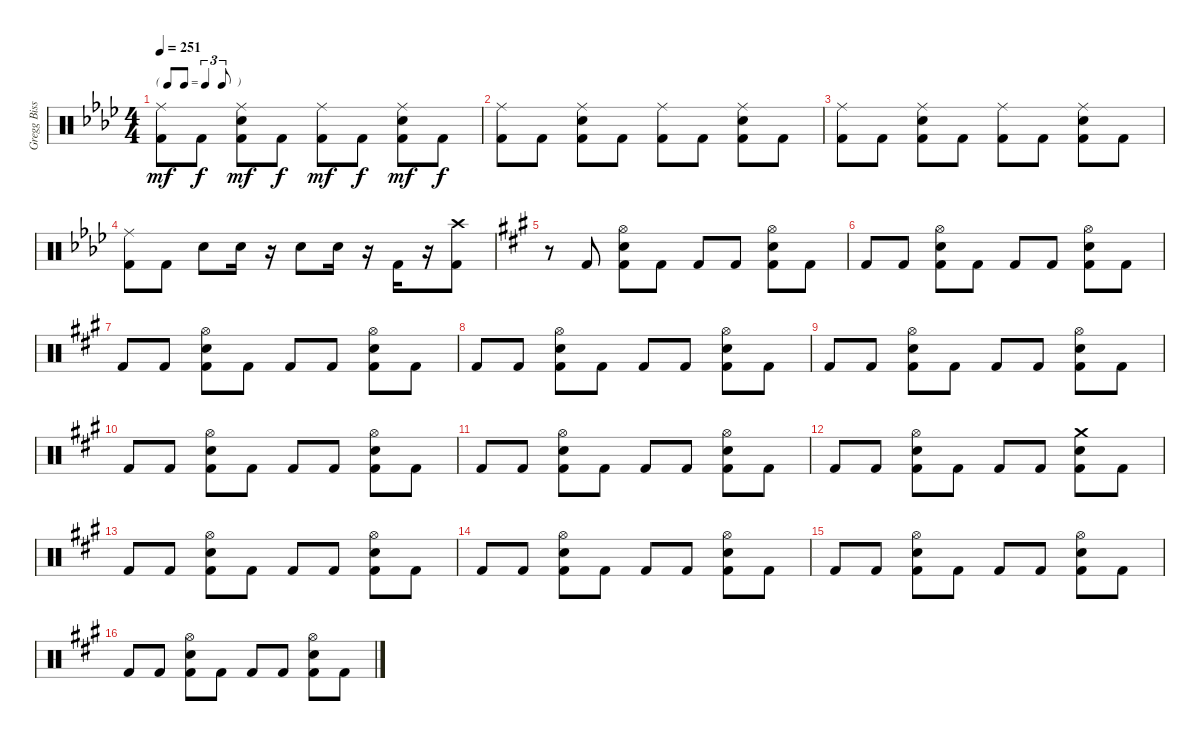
\track ("Gregg Bissonette" "Gregg Biss") {instrument percussion}
\staff {score}
\articulation defaults
\ts (4 4)
\tf triplet8th
\tempo 251
\clef neutral
\ks fminor
("Ride (middle)" "Kick (hit) 2").8{dy mf} "Kick (hit) 2".8{dy f} ("Ride (middle)" "Electric Snare (hit)" "Kick (hit) 2").8{dy mf} "Kick (hit) 2".8{dy f} ("Ride (middle)" "Kick (hit) 2").8{dy mf} "Kick (hit) 2".8{dy f} ("Ride (middle)" "Electric Snare (hit)" "Kick (hit) 2").8{dy mf} "Kick (hit) 2".8{dy f} |
("Ride (middle)" "Kick (hit) 2").8 "Kick (hit) 2".8 ("Ride (middle)" "Electric Snare (hit)" "Kick (hit) 2").8 "Kick (hit) 2".8 ("Ride (middle)" "Kick (hit) 2").8 "Kick (hit) 2".8 ("Ride (middle)" "Electric Snare (hit)" "Kick (hit) 2").8 "Kick (hit) 2".8 |
("Ride (middle)" "Kick (hit) 2").8 "Kick (hit) 2".8 ("Ride (middle)" "Electric Snare (hit)" "Kick (hit) 2").8 "Kick (hit) 2".8 ("Ride (middle)" "Kick (hit) 2").8 "Kick (hit) 2".8 ("Ride (middle)" "Electric Snare (hit)" "Kick (hit) 2").8 "Kick (hit) 2".8 |
("Ride (middle)" "Kick (hit) 2").8 "Kick (hit) 2".8 "Electric Snare (hit)".8 "Electric Snare (hit)".16 r.16 "Electric Snare (hit)".8 "Electric Snare (hit)".16 r.16 "Kick (hit) 2".16 r.16 ("Crash high (hit)" "Kick (hit) 2").8 |
\ks f#minor
r.8 "Kick (hit) 2".8 ("Hi-Hat (open)" "Electric Snare (hit)" "Kick (hit) 2").8 "Kick (hit) 2".8 "Kick (hit) 2".8 "Kick (hit) 2".8 ("Hi-Hat (open)" "Electric Snare (hit)" "Kick (hit) 2").8 "Kick (hit) 2".8 |
"Kick (hit) 2".8 "Kick (hit) 2".8 ("Hi-Hat (open)" "Electric Snare (hit)" "Kick (hit) 2").8 "Kick (hit) 2".8 "Kick (hit) 2".8 "Kick (hit) 2".8 ("Hi-Hat (open)" "Electric Snare (hit)" "Kick (hit) 2").8 "Kick (hit) 2".8 |
"Kick (hit) 2".8 "Kick (hit) 2".8 ("Hi-Hat (open)" "Electric Snare (hit)" "Kick (hit) 2").8 "Kick (hit) 2".8 "Kick (hit) 2".8 "Kick (hit) 2".8 ("Hi-Hat (open)" "Electric Snare (hit)" "Kick (hit) 2").8 "Kick (hit) 2".8 |
"Kick (hit) 2".8 "Kick (hit) 2".8 ("Hi-Hat (open)" "Electric Snare (hit)" "Kick (hit) 2").8 "Kick (hit) 2".8 "Kick (hit) 2".8 "Kick (hit) 2".8 ("Hi-Hat (open)" "Electric Snare (hit)" "Kick (hit) 2").8 "Kick (hit) 2".8 |
"Kick (hit) 2".8 "Kick (hit) 2".8 ("Hi-Hat (open)" "Electric Snare (hit)" "Kick (hit) 2").8 "Kick (hit) 2".8 "Kick (hit) 2".8 "Kick (hit) 2".8 ("Hi-Hat (open)" "Electric Snare (hit)" "Kick (hit) 2").8 "Kick (hit) 2".8 |
"Kick (hit) 2".8 "Kick (hit) 2".8 ("Hi-Hat (open)" "Electric Snare (hit)" "Kick (hit) 2").8 "Kick (hit) 2".8 "Kick (hit) 2".8 "Kick (hit) 2".8 ("Hi-Hat (open)" "Electric Snare (hit)" "Kick (hit) 2").8 "Kick (hit) 2".8 |
"Kick (hit) 2".8 "Kick (hit) 2".8 ("Hi-Hat (open)" "Electric Snare (hit)" "Kick (hit) 2").8 "Kick (hit) 2".8 "Kick (hit) 2".8 "Kick (hit) 2".8 ("Hi-Hat (open)" "Electric Snare (hit)" "Kick (hit) 2").8 "Kick (hit) 2".8 |
"Kick (hit) 2".8 "Kick (hit) 2".8 ("Hi-Hat (open)" "Electric Snare (hit)" "Kick (hit) 2").8 "Kick (hit) 2".8 "Kick (hit) 2".8 "Kick (hit) 2".8 ("Crash medium (hit)" "Electric Snare (hit)" "Kick (hit) 2").8 "Kick (hit) 2".8 |
"Kick (hit) 2".8 "Kick (hit) 2".8 ("Hi-Hat (open)" "Electric Snare (hit)" "Kick (hit) 2").8 "Kick (hit) 2".8 "Kick (hit) 2".8 "Kick (hit) 2".8 ("Hi-Hat (open)" "Electric Snare (hit)" "Kick (hit) 2").8 "Kick (hit) 2".8 |
"Kick (hit) 2".8 "Kick (hit) 2".8 ("Hi-Hat (open)" "Electric Snare (hit)" "Kick (hit) 2").8 "Kick (hit) 2".8 "Kick (hit) 2".8 "Kick (hit) 2".8 ("Hi-Hat (open)" "Electric Snare (hit)" "Kick (hit) 2").8 "Kick (hit) 2".8 |
"Kick (hit) 2".8 "Kick (hit) 2".8 ("Hi-Hat (open)" "Electric Snare (hit)" "Kick (hit) 2").8 "Kick (hit) 2".8 "Kick (hit) 2".8 "Kick (hit) 2".8 ("Hi-Hat (open)" "Electric Snare (hit)" "Kick (hit) 2").8 "Kick (hit) 2".8 |
"Kick (hit) 2".8 "Kick (hit) 2".8 ("Hi-Hat (open)" "Electric Snare (hit)" "Kick (hit) 2").8 "Kick (hit) 2".8 "Kick (hit) 2".8 "Kick (hit) 2".8 ("Hi-Hat (open)" "Electric Snare (hit)" "Kick (hit) 2").8 "Kick (hit) 2".8
